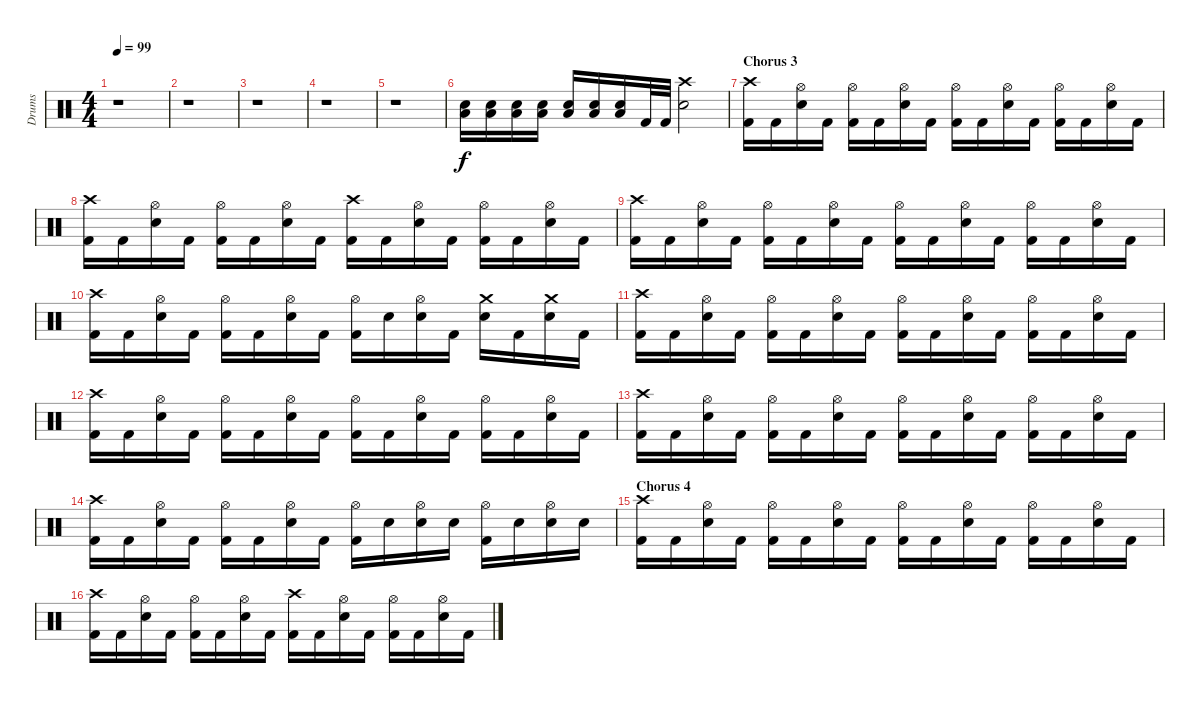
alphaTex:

\track ("Drums" "Drums") {instrument percussion}
\staff {score}
\articulation defaults
\ts (4 4)
\tempo 99
\clef neutral
\ks c
r.1{dy f} |
r.1 |
r.1 |
r.1 |
r.1 |
("Electric Snare (hit)" "Low Tom (hit)").16 ("Electric Snare (hit)" "Low Tom (hit)").16 ("Electric Snare (hit)" "Low Tom (hit)").16 ("Electric Snare (hit)" "Low Tom (hit)").16 ("Electric Snare (hit)" "Low Tom (hit)").16 ("Electric Snare (hit)" "Low Tom (hit)").16 ("Electric Snare (hit)" "Low Tom (hit)").16 "Kick (hit) 2".32 "Kick (hit) 2".32 ("Electric Snare (hit)" "Crash high (hit)").2 |
\section ("" "Chorus 3")
("Kick (hit) 2" "Crash high (hit)").16 "Kick (hit) 2".16 ("Electric Snare (hit)" "Hi-Hat (open)").16 "Kick (hit) 2".16 ("Kick (hit) 2" "Hi-Hat (open)").16 "Kick (hit) 2".16 ("Electric Snare (hit)" "Hi-Hat (open)").16 "Kick (hit) 2".16 ("Kick (hit) 2" "Hi-Hat (open)").16 "Kick (hit) 2".16 ("Electric Snare (hit)" "Hi-Hat (open)").16 "Kick (hit) 2".16 ("Kick (hit) 2" "Hi-Hat (open)").16 "Kick (hit) 2".16 ("Electric Snare (hit)" "Hi-Hat (open)").16 "Kick (hit) 2".16 |
("Kick (hit) 2" "Crash high (hit)").16 "Kick (hit) 2".16 ("Electric Snare (hit)" "Hi-Hat (open)").16 "Kick (hit) 2".16 ("Kick (hit) 2" "Hi-Hat (open)").16 "Kick (hit) 2".16 ("Electric Snare (hit)" "Hi-Hat (open)").16 "Kick (hit) 2".16 ("Kick (hit) 2" "Crash high (hit)").16 "Kick (hit) 2".16 ("Electric Snare (hit)" "Hi-Hat (open)").16 "Kick (hit) 2".16 ("Kick (hit) 2" "Hi-Hat (open)").16 "Kick (hit) 2".16 ("Electric Snare (hit)" "Hi-Hat (open)").16 "Kick (hit) 2".16 |
("Kick (hit) 2" "Crash high (hit)").16 "Kick (hit) 2".16 ("Electric Snare (hit)" "Hi-Hat (open)").16 "Kick (hit) 2".16 ("Kick (hit) 2" "Hi-Hat (open)").16 "Kick (hit) 2".16 ("Electric Snare (hit)" "Hi-Hat (open)").16 "Kick (hit) 2".16 ("Kick (hit) 2" "Hi-Hat (open)").16 "Kick (hit) 2".16 ("Electric Snare (hit)" "Hi-Hat (open)").16 "Kick (hit) 2".16 ("Kick (hit) 2" "Hi-Hat (open)").16 "Kick (hit) 2".16 ("Electric Snare (hit)" "Hi-Hat (open)").16 "Kick (hit) 2".16 |
("Kick (hit) 2" "Crash high (hit)").16 "Kick (hit) 2".16 ("Electric Snare (hit)" "Hi-Hat (open)").16 "Kick (hit) 2".16 ("Kick (hit) 2" "Hi-Hat (open)").16 "Kick (hit) 2".16 ("Electric Snare (hit)" "Hi-Hat (open)").16 "Kick (hit) 2".16 ("Kick (hit) 2" "Hi-Hat (open)").16 "Electric Snare (hit)".16 ("Electric Snare (hit)" "Hi-Hat (open)").16 "Kick (hit) 2".16 ("Electric Snare (hit)" "Crash medium (hit)").16 "Kick (hit) 2".16 ("Electric Snare (hit)" "Crash medium (hit)").16 "Kick (hit) 2".16 |
("Kick (hit) 2" "Crash high (hit)").16 "Kick (hit) 2".16 ("Electric Snare (hit)" "Hi-Hat (open)").16 "Kick (hit) 2".16 ("Kick (hit) 2" "Hi-Hat (open)").16 "Kick (hit) 2".16 ("Electric Snare (hit)" "Hi-Hat (open)").16 "Kick (hit) 2".16 ("Kick (hit) 2" "Hi-Hat (open)").16 "Kick (hit) 2".16 ("Electric Snare (hit)" "Hi-Hat (open)").16 "Kick (hit) 2".16 ("Kick (hit) 2" "Hi-Hat (open)").16 "Kick (hit) 2".16 ("Electric Snare (hit)" "Hi-Hat (open)").16 "Kick (hit) 2".16 |
("Kick (hit) 2" "Crash high (hit)").16 "Kick (hit) 2".16 ("Electric Snare (hit)" "Hi-Hat (open)").16 "Kick (hit) 2".16 ("Kick (hit) 2" "Hi-Hat (open)").16 "Kick (hit) 2".16 ("Electric Snare (hit)" "Hi-Hat (open)").16 "Kick (hit) 2".16 ("Kick (hit) 2" "Hi-Hat (open)").16 "Kick (hit) 2".16 ("Electric Snare (hit)" "Hi-Hat (open)").16 "Kick (hit) 2".16 ("Kick (hit) 2" "Hi-Hat (open)").16 "Kick (hit) 2".16 ("Electric Snare (hit)" "Hi-Hat (open)").16 "Kick (hit) 2".16 |
("Kick (hit) 2" "Crash high (hit)").16 "Kick (hit) 2".16 ("Electric Snare (hit)" "Hi-Hat (open)").16 "Kick (hit) 2".16 ("Kick (hit) 2" "Hi-Hat (open)").16 "Kick (hit) 2".16 ("Electric Snare (hit)" "Hi-Hat (open)").16 "Kick (hit) 2".16 ("Kick (hit) 2" "Hi-Hat (open)").16 "Kick (hit) 2".16 ("Electric Snare (hit)" "Hi-Hat (open)").16 "Kick (hit) 2".16 ("Kick (hit) 2" "Hi-Hat (open)").16 "Kick (hit) 2".16 ("Electric Snare (hit)" "Hi-Hat (open)").16 "Kick (hit) 2".16 |
("Kick (hit) 2" "Crash high (hit)").16 "Kick (hit) 2".16 ("Electric Snare (hit)" "Hi-Hat (open)").16 "Kick (hit) 2".16 ("Kick (hit) 2" "Hi-Hat (open)").16 "Kick (hit) 2".16 ("Electric Snare (hit)" "Hi-Hat (open)").16 "Kick (hit) 2".16 ("Kick (hit) 2" "Hi-Hat (open)").16 "Electric Snare (hit)".16 ("Electric Snare (hit)" "Hi-Hat (open)").16 "Electric Snare (hit)".16 ("Kick (hit) 2" "Hi-Hat (open)").16 "Electric Snare (hit)".16 ("Electric Snare (hit)" "Hi-Hat (open)").16 "Electric Snare (hit)".16 |
\section ("" "Chorus 4")
("Kick (hit) 2" "Crash high (hit)").16 "Kick (hit) 2".16 ("Electric Snare (hit)" "Hi-Hat (open)").16 "Kick (hit) 2".16 ("Kick (hit) 2" "Hi-Hat (open)").16 "Kick (hit) 2".16 ("Electric Snare (hit)" "Hi-Hat (open)").16 "Kick (hit) 2".16 ("Kick (hit) 2" "Hi-Hat (open)").16 "Kick (hit) 2".16 ("Electric Snare (hit)" "Hi-Hat (open)").16 "Kick (hit) 2".16 ("Kick (hit) 2" "Hi-Hat (open)").16 "Kick (hit) 2".16 ("Electric Snare (hit)" "Hi-Hat (open)").16 "Kick (hit) 2".16 |
("Kick (hit) 2" "Crash high (hit)").16 "Kick (hit) 2".16 ("Electric Snare (hit)" "Hi-Hat (open)").16 "Kick (hit) 2".16 ("Kick (hit) 2" "Hi-Hat (open)").16 "Kick (hit) 2".16 ("Electric Snare (hit)" "Hi-Hat (open)").16 "Kick (hit) 2".16 ("Kick (hit) 2" "Crash high (hit)").16 "Kick (hit) 2".16 ("Electric Snare (hit)" "Hi-Hat (open)").16 "Kick (hit) 2".16 ("Kick (hit) 2" "Hi-Hat (open)").16 "Kick (hit) 2".16 ("Electric Snare (hit)" "Hi-Hat (open)").16 "Kick (hit) 2".16
